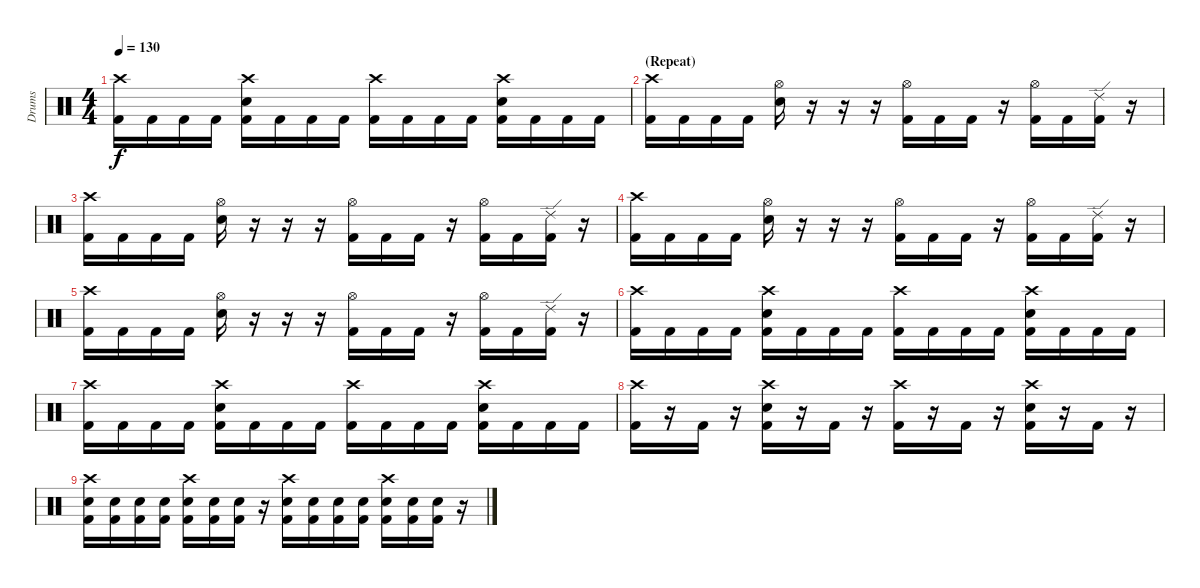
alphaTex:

\track ("Drums" "Drums") {instrument percussion}
\staff {score}
\articulation defaults
\ts (4 4)
\tempo 130
\clef neutral
\ks c
("Crash high (hit)" "Kick (hit) 2").16{dy f} "Kick (hit) 2".16 "Kick (hit) 2".16 "Kick (hit) 2".16 ("Crash high (hit)" "Electric Snare (hit)" "Kick (hit) 2").16 "Kick (hit) 2".16 "Kick (hit) 2".16 "Kick (hit) 2".16 ("Crash high (hit)" "Kick (hit) 2").16 "Kick (hit) 2".16 "Kick (hit) 2".16 "Kick (hit) 2".16 ("Crash high (hit)" "Electric Snare (hit)" "Kick (hit) 2").16 "Kick (hit) 2".16 "Kick (hit) 2".16 "Kick (hit) 2".16 |
\section ("" "(Repeat)")
("Crash high (hit)" "Kick (hit) 2").16 "Kick (hit) 2".16 "Kick (hit) 2".16 "Kick (hit) 2".16 ("Hi-Hat (open)" "Electric Snare (hit)").16 r.16 r.16 r.16 ("Hi-Hat (open)" "Kick (hit) 2").16 "Kick (hit) 2".16 "Kick (hit) 2".16 r.16 ("Hi-Hat (open)" "Kick (hit) 2").16 "Kick (hit) 2".16 ("Ride (edge) 2" "Kick (hit) 2").16 r.16 |
("Crash high (hit)" "Kick (hit) 2").16 "Kick (hit) 2".16 "Kick (hit) 2".16 "Kick (hit) 2".16 ("Hi-Hat (open)" "Electric Snare (hit)").16 r.16 r.16 r.16 ("Hi-Hat (open)" "Kick (hit) 2").16 "Kick (hit) 2".16 "Kick (hit) 2".16 r.16 ("Hi-Hat (open)" "Kick (hit) 2").16 "Kick (hit) 2".16 ("Ride (edge) 2" "Kick (hit) 2").16 r.16 |
("Crash high (hit)" "Kick (hit) 2").16 "Kick (hit) 2".16 "Kick (hit) 2".16 "Kick (hit) 2".16 ("Hi-Hat (open)" "Electric Snare (hit)").16 r.16 r.16 r.16 ("Hi-Hat (open)" "Kick (hit) 2").16 "Kick (hit) 2".16 "Kick (hit) 2".16 r.16 ("Hi-Hat (open)" "Kick (hit) 2").16 "Kick (hit) 2".16 ("Ride (edge) 2" "Kick (hit) 2").16 r.16 |
("Crash high (hit)" "Kick (hit) 2").16 "Kick (hit) 2".16 "Kick (hit) 2".16 "Kick (hit) 2".16 ("Hi-Hat (open)" "Electric Snare (hit)").16 r.16 r.16 r.16 ("Hi-Hat (open)" "Kick (hit) 2").16 "Kick (hit) 2".16 "Kick (hit) 2".16 r.16 ("Hi-Hat (open)" "Kick (hit) 2").16 "Kick (hit) 2".16 ("Ride (edge) 2" "Kick (hit) 2").16 r.16 |
("Crash high (hit)" "Kick (hit) 2").16 "Kick (hit) 2".16 "Kick (hit) 2".16 "Kick (hit) 2".16 ("Crash high (hit)" "Electric Snare (hit)" "Kick (hit) 2").16 "Kick (hit) 2".16 "Kick (hit) 2".16 "Kick (hit) 2".16 ("Crash high (hit)" "Kick (hit) 2").16 "Kick (hit) 2".16 "Kick (hit) 2".16 "Kick (hit) 2".16 ("Crash high (hit)" "Electric Snare (hit)" "Kick (hit) 2").16 "Kick (hit) 2".16 "Kick (hit) 2".16 "Kick (hit) 2".16 |
("Crash high (hit)" "Kick (hit) 2").16 "Kick (hit) 2".16 "Kick (hit) 2".16 "Kick (hit) 2".16 ("Crash high (hit)" "Electric Snare (hit)" "Kick (hit) 2").16 "Kick (hit) 2".16 "Kick (hit) 2".16 "Kick (hit) 2".16 ("Crash high (hit)" "Kick (hit) 2").16 "Kick (hit) 2".16 "Kick (hit) 2".16 "Kick (hit) 2".16 ("Crash high (hit)" "Electric Snare (hit)" "Kick (hit) 2").16 "Kick (hit) 2".16 "Kick (hit) 2".16 "Kick (hit) 2".16 |
("Crash high (hit)" "Kick (hit) 2").16 r.16 "Kick (hit) 2".16 r.16 ("Crash high (hit)" "Electric Snare (hit)" "Kick (hit) 2").16 r.16 "Kick (hit) 2".16 r.16 ("Crash high (hit)" "Kick (hit) 2").16 r.16 "Kick (hit) 2".16 r.16 ("Crash high (hit)" "Electric Snare (hit)" "Kick (hit) 2").16 r.16 "Kick (hit) 2".16 r.16 |
("Crash high (hit)" "Electric Snare (hit)" "Kick (hit) 2").16 ("Electric Snare (hit)" "Kick (hit) 2").16 ("Electric Snare (hit)" "Kick (hit) 2").16 ("Electric Snare (hit)" "Kick (hit) 2").16 ("Crash high (hit)" "Electric Snare (hit)" "Kick (hit) 2").16 ("Electric Snare (hit)" "Kick (hit) 2").16 ("Electric Snare (hit)" "Kick (hit) 2").16 r.16 ("Crash high (hit)" "Electric Snare (hit)" "Kick (hit) 2").16 ("Electric Snare (hit)" "Kick (hit) 2").16 ("Electric Snare (hit)" "Kick (hit) 2").16 ("Electric Snare (hit)" "Kick (hit) 2").16 ("Crash high (hit)" "Electric Snare (hit)" "Kick (hit) 2").16 ("Electric Snare (hit)" "Kick (hit) 2").16 ("Electric Snare (hit)" "Kick (hit) 2").16 r.16
